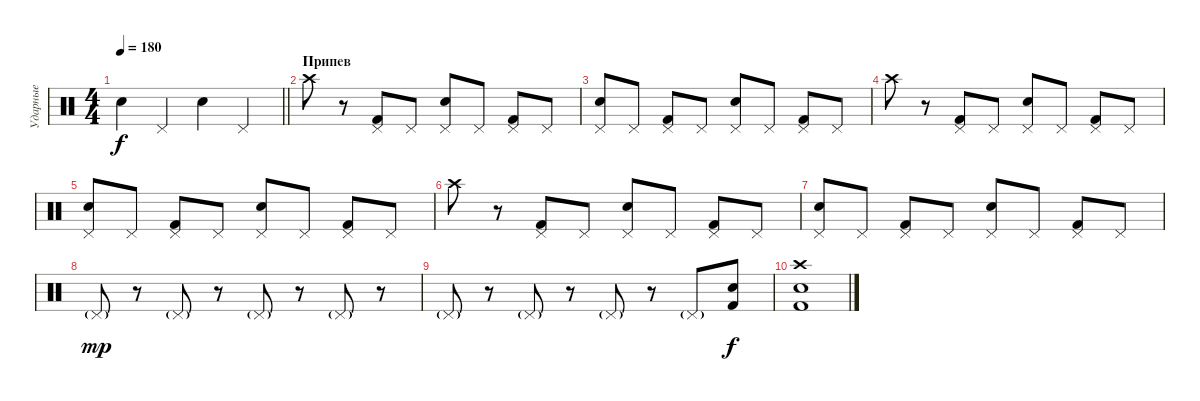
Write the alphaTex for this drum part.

\track ("Ударные" "Ударные") {instrument percussion}
\staff {score}
\articulation defaults
\ts (4 4)
\tempo 180
\clef neutral
\barLineRight lightlight
\ks c "Snare (hit) 2".4{dy f} "Pedal Hi-Hat (hit)".4 "Snare (hit) 2".4 "Pedal Hi-Hat (hit)".4
|
\section ("" "Припев")
"Crash high (hit)".8 r.8 ("Kick (hit) 2" "Pedal Hi-Hat (hit)").8 "Pedal Hi-Hat (hit)".8 ("Snare (hit) 2" "Pedal Hi-Hat (hit)").8 "Pedal Hi-Hat (hit)".8 ("Kick (hit) 2" "Pedal Hi-Hat (hit)").8 "Pedal Hi-Hat (hit)".8 |
("Snare (hit) 2" "Pedal Hi-Hat (hit)").8 "Pedal Hi-Hat (hit)".8 ("Kick (hit) 2" "Pedal Hi-Hat (hit)").8 "Pedal Hi-Hat (hit)".8 ("Snare (hit) 2" "Pedal Hi-Hat (hit)").8 "Pedal Hi-Hat (hit)".8 ("Kick (hit) 2" "Pedal Hi-Hat (hit)").8 "Pedal Hi-Hat (hit)".8 |
"Crash high (hit)".8 r.8 ("Kick (hit) 2" "Pedal Hi-Hat (hit)").8 "Pedal Hi-Hat (hit)".8 ("Snare (hit) 2" "Pedal Hi-Hat (hit)").8 "Pedal Hi-Hat (hit)".8 ("Kick (hit) 2" "Pedal Hi-Hat (hit)").8 "Pedal Hi-Hat (hit)".8 |
("Snare (hit) 2" "Pedal Hi-Hat (hit)").8 "Pedal Hi-Hat (hit)".8 ("Kick (hit) 2" "Pedal Hi-Hat (hit)").8 "Pedal Hi-Hat (hit)".8 ("Snare (hit) 2" "Pedal Hi-Hat (hit)").8 "Pedal Hi-Hat (hit)".8 ("Kick (hit) 2" "Pedal Hi-Hat (hit)").8 "Pedal Hi-Hat (hit)".8 |
"Crash high (hit)".8 r.8 ("Kick (hit) 2" "Pedal Hi-Hat (hit)").8 "Pedal Hi-Hat (hit)".8 ("Snare (hit) 2" "Pedal Hi-Hat (hit)").8 "Pedal Hi-Hat (hit)".8 ("Kick (hit) 2" "Pedal Hi-Hat (hit)").8 "Pedal Hi-Hat (hit)".8 |
("Snare (hit) 2" "Pedal Hi-Hat (hit)").8 "Pedal Hi-Hat (hit)".8 ("Kick (hit) 2" "Pedal Hi-Hat (hit)").8 "Pedal Hi-Hat (hit)".8 ("Snare (hit) 2" "Pedal Hi-Hat (hit)").8 "Pedal Hi-Hat (hit)".8 ("Kick (hit) 2" "Pedal Hi-Hat (hit)").8 "Pedal Hi-Hat (hit)".8 |
"Pedal Hi-Hat (hit)"{g}.8{dy mp} r.8 "Pedal Hi-Hat (hit)"{g}.8 r.8 "Pedal Hi-Hat (hit)"{g}.8 r.8 "Pedal Hi-Hat (hit)"{g}.8 r.8 |
"Pedal Hi-Hat (hit)"{g}.8 r.8 "Pedal Hi-Hat (hit)"{g}.8 r.8 "Pedal Hi-Hat (hit)"{g}.8 r.8 "Pedal Hi-Hat (hit)"{g}.8 ("Kick (hit) 2" "Snare (hit) 2").8{dy f} |
("Electric Snare (hit)" "Crash high (hit)" "Kick (hit) 2").1
